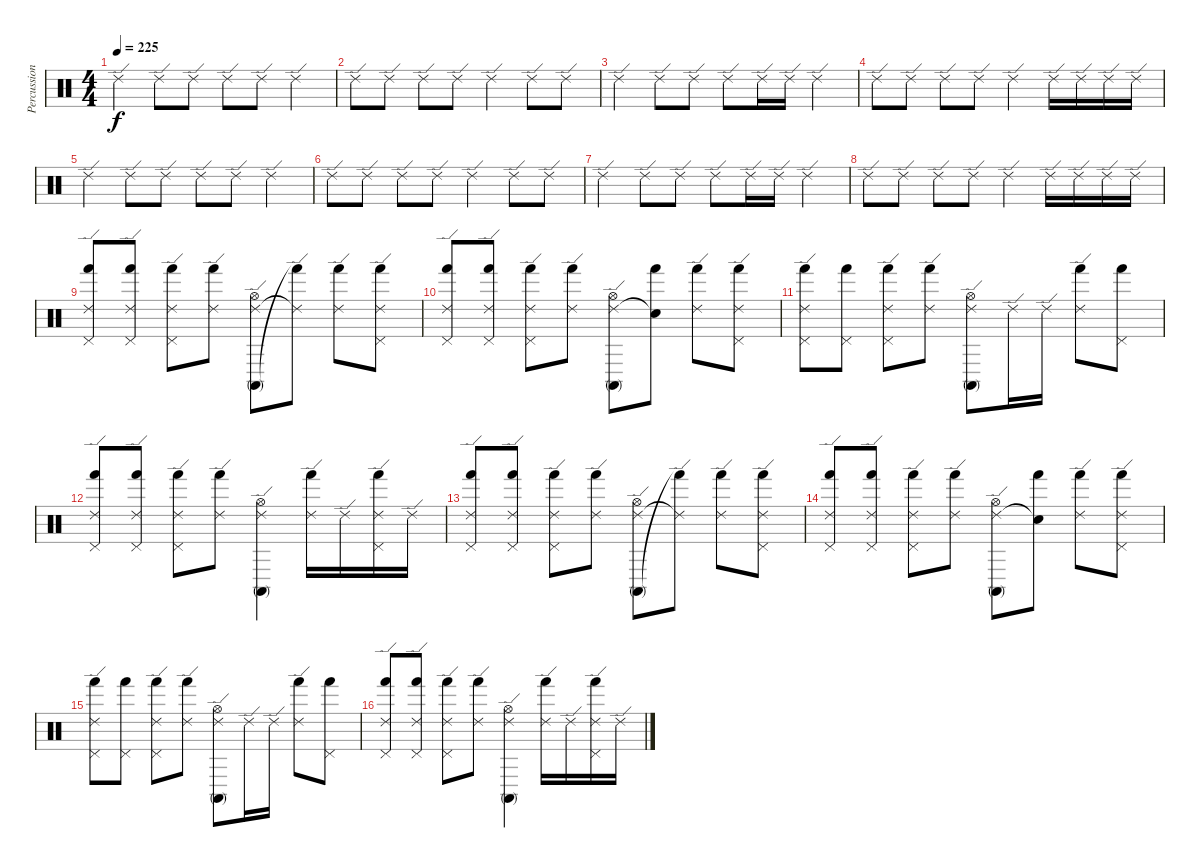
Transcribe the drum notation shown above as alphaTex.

\track ("Percussion" "Percussion") {instrument percussion}
\staff {score}
\articulation defaults
\ts (4 4)
\tempo 225
\clef neutral
\ks c "Ride (edge) 2".4{dy f} "Ride (edge) 2".8 "Ride (edge) 2".8 "Ride (edge) 2".8 "Ride (edge) 2".8 "Ride (edge) 2".4
|
"Ride (edge) 2".8 "Ride (edge) 2".8 "Ride (edge) 2".8 "Ride (edge) 2".8 "Ride (edge) 2".4 "Ride (edge) 2".8 "Ride (edge) 2".8 |
"Ride (edge) 2".4 "Ride (edge) 2".8 "Ride (edge) 2".8 "Ride (edge) 2".8 "Ride (edge) 2".16 "Ride (edge) 2".16 "Ride (edge) 2".4 |
"Ride (edge) 2".8 "Ride (edge) 2".8 "Ride (edge) 2".8 "Ride (edge) 2".8 "Ride (edge) 2".4 "Ride (edge) 2".16 "Ride (edge) 2".16 "Ride (edge) 2".16 "Ride (edge) 2".16 |
"Ride (edge) 2".4 "Ride (edge) 2".8 "Ride (edge) 2".8 "Ride (edge) 2".8 "Ride (edge) 2".8 "Ride (edge) 2".4 |
"Ride (edge) 2".8 "Ride (edge) 2".8 "Ride (edge) 2".8 "Ride (edge) 2".8 "Ride (edge) 2".4 "Ride (edge) 2".8 "Ride (edge) 2".8 |
"Ride (edge) 2".4 "Ride (edge) 2".8 "Ride (edge) 2".8 "Ride (edge) 2".8 "Ride (edge) 2".16 "Ride (edge) 2".16 "Ride (edge) 2".4 |
"Ride (edge) 2".8 "Ride (edge) 2".8 "Ride (edge) 2".8 "Ride (edge) 2".8 "Ride (edge) 2".4 "Ride (edge) 2".16 "Ride (edge) 2".16 "Ride (edge) 2".16 "Ride (edge) 2".16 |
("Ride (edge) 2" "Hand (hit)" "Pedal Hi-Hat (hit)").8 ("Ride (edge) 2" "Hand (hit)" "Pedal Hi-Hat (hit)").8 ("Ride (edge) 2" "Hand (hit)" "Pedal Hi-Hat (hit)").8 ("Ride (edge) 2" "Hand (hit)").8 ("Ride (edge) 2" "Conga high (mute)" "Hi-Hat (open)").8 ("Ride (edge) 2"{t} "Hand (hit)"{t}).8 ("Ride (edge) 2" "Hand (hit)").8 ("Ride (edge) 2" "Hand (hit)" "Pedal Hi-Hat (hit)").8 |
("Ride (edge) 2" "Hand (hit)" "Pedal Hi-Hat (hit)").8 ("Ride (edge) 2" "Hand (hit)" "Pedal Hi-Hat (hit)").8 ("Ride (edge) 2" "Hand (hit)" "Pedal Hi-Hat (hit)").8 ("Ride (edge) 2" "Hand (hit)").8 ("Ride (edge) 2" "Conga high (mute)" "Hi-Hat (open)").8 ("Snare (hit)"{t} "Hand (hit)").8 ("Ride (edge) 2" "Hand (hit)").8 ("Ride (edge) 2" "Hand (hit)" "Pedal Hi-Hat (hit)").8 |
("Ride (edge) 2" "Hand (hit)" "Pedal Hi-Hat (hit)").8 ("Hand (hit)" "Pedal Hi-Hat (hit)").8 ("Ride (edge) 2" "Hand (hit)" "Pedal Hi-Hat (hit)").8 ("Ride (edge) 2" "Hand (hit)").8 ("Ride (edge) 2" "Conga high (mute)" "Hi-Hat (open)").8 "Ride (edge) 2".16 "Ride (edge) 2".16 ("Ride (edge) 2" "Hand (hit)").8 ("Hand (hit)" "Pedal Hi-Hat (hit)").8 |
("Ride (edge) 2" "Hand (hit)" "Pedal Hi-Hat (hit)").8 ("Ride (edge) 2" "Hand (hit)" "Pedal Hi-Hat (hit)").8 ("Ride (edge) 2" "Hand (hit)" "Pedal Hi-Hat (hit)").8 ("Ride (edge) 2" "Hand (hit)").8 ("Ride (edge) 2" "Conga high (mute)" "Hi-Hat (open)").4 ("Ride (edge) 2" "Hand (hit)").16 "Ride (edge) 2".16 ("Ride (edge) 2" "Hand (hit)" "Pedal Hi-Hat (hit)").16 "Ride (edge) 2".16 |
("Ride (edge) 2" "Hand (hit)" "Pedal Hi-Hat (hit)").8 ("Ride (edge) 2" "Hand (hit)" "Pedal Hi-Hat (hit)").8 ("Ride (edge) 2" "Hand (hit)" "Pedal Hi-Hat (hit)").8 ("Ride (edge) 2" "Hand (hit)").8 ("Ride (edge) 2" "Conga high (mute)" "Hi-Hat (open)").8 ("Ride (edge) 2"{t} "Hand (hit)"{t}).8 ("Ride (edge) 2" "Hand (hit)").8 ("Ride (edge) 2" "Hand (hit)" "Pedal Hi-Hat (hit)").8 |
("Ride (edge) 2" "Hand (hit)" "Pedal Hi-Hat (hit)").8 ("Ride (edge) 2" "Hand (hit)" "Pedal Hi-Hat (hit)").8 ("Ride (edge) 2" "Hand (hit)" "Pedal Hi-Hat (hit)").8 ("Ride (edge) 2" "Hand (hit)").8 ("Ride (edge) 2" "Conga high (mute)" "Hi-Hat (open)").8 ("Snare (hit)"{t} "Hand (hit)").8 ("Ride (edge) 2" "Hand (hit)").8 ("Ride (edge) 2" "Hand (hit)" "Pedal Hi-Hat (hit)").8 |
("Ride (edge) 2" "Hand (hit)" "Pedal Hi-Hat (hit)").8 ("Hand (hit)" "Pedal Hi-Hat (hit)").8 ("Ride (edge) 2" "Hand (hit)" "Pedal Hi-Hat (hit)").8 ("Ride (edge) 2" "Hand (hit)").8 ("Ride (edge) 2" "Conga high (mute)" "Hi-Hat (open)").8 "Ride (edge) 2".16 "Ride (edge) 2".16 ("Ride (edge) 2" "Hand (hit)").8 ("Hand (hit)" "Pedal Hi-Hat (hit)").8 |
("Ride (edge) 2" "Hand (hit)" "Pedal Hi-Hat (hit)").8 ("Ride (edge) 2" "Hand (hit)" "Pedal Hi-Hat (hit)").8 ("Ride (edge) 2" "Hand (hit)" "Pedal Hi-Hat (hit)").8 ("Ride (edge) 2" "Hand (hit)").8 ("Ride (edge) 2" "Conga high (mute)" "Hi-Hat (open)").4 ("Ride (edge) 2" "Hand (hit)").16 "Ride (edge) 2".16 ("Ride (edge) 2" "Hand (hit)" "Pedal Hi-Hat (hit)").16 "Ride (edge) 2".16
